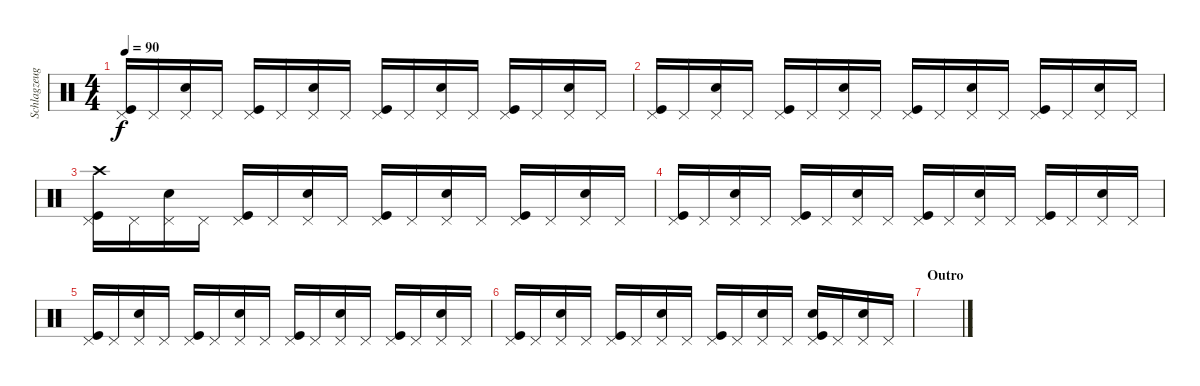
\track ("Schlagzeug" "Schlagzeug") {instrument percussion}
\staff {score}
\articulation defaults
\ts (4 4)
\tempo 90
\clef neutral
\ks c
("Pedal Hi-Hat (hit)" "Kick (hit)").16{dy f volume 11} "Pedal Hi-Hat (hit)".16 ("Pedal Hi-Hat (hit)" "Electric Snare (hit)").16 "Pedal Hi-Hat (hit)".16 ("Pedal Hi-Hat (hit)" "Kick (hit)").16 "Pedal Hi-Hat (hit)".16 ("Pedal Hi-Hat (hit)" "Electric Snare (hit)").16 "Pedal Hi-Hat (hit)".16 ("Pedal Hi-Hat (hit)" "Kick (hit)").16 "Pedal Hi-Hat (hit)".16 ("Pedal Hi-Hat (hit)" "Electric Snare (hit)").16 "Pedal Hi-Hat (hit)".16 ("Pedal Hi-Hat (hit)" "Kick (hit)").16 "Pedal Hi-Hat (hit)".16 ("Pedal Hi-Hat (hit)" "Electric Snare (hit)").16 "Pedal Hi-Hat (hit)".16 |
("Pedal Hi-Hat (hit)" "Kick (hit)").16{volume 10} "Pedal Hi-Hat (hit)".16 ("Pedal Hi-Hat (hit)" "Electric Snare (hit)").16 "Pedal Hi-Hat (hit)".16 ("Pedal Hi-Hat (hit)" "Kick (hit)").16 "Pedal Hi-Hat (hit)".16 ("Pedal Hi-Hat (hit)" "Electric Snare (hit)").16 "Pedal Hi-Hat (hit)".16 ("Pedal Hi-Hat (hit)" "Kick (hit)").16 "Pedal Hi-Hat (hit)".16 ("Pedal Hi-Hat (hit)" "Electric Snare (hit)").16 "Pedal Hi-Hat (hit)".16 ("Pedal Hi-Hat (hit)" "Kick (hit)").16 "Pedal Hi-Hat (hit)".16 ("Pedal Hi-Hat (hit)" "Electric Snare (hit)").16 "Pedal Hi-Hat (hit)".16 |
("Crash high (hit)" "Pedal Hi-Hat (hit)" "Kick (hit)").16{volume 6} "Pedal Hi-Hat (hit)".16 ("Pedal Hi-Hat (hit)" "Electric Snare (hit)").16 "Pedal Hi-Hat (hit)".16 ("Pedal Hi-Hat (hit)" "Kick (hit)").16 "Pedal Hi-Hat (hit)".16 ("Pedal Hi-Hat (hit)" "Electric Snare (hit)").16 "Pedal Hi-Hat (hit)".16 ("Pedal Hi-Hat (hit)" "Kick (hit)").16 "Pedal Hi-Hat (hit)".16 ("Pedal Hi-Hat (hit)" "Electric Snare (hit)").16 "Pedal Hi-Hat (hit)".16 ("Pedal Hi-Hat (hit)" "Kick (hit)").16 "Pedal Hi-Hat (hit)".16 ("Pedal Hi-Hat (hit)" "Electric Snare (hit)").16 "Pedal Hi-Hat (hit)".16 |
("Pedal Hi-Hat (hit)" "Kick (hit)").16 "Pedal Hi-Hat (hit)".16 ("Pedal Hi-Hat (hit)" "Electric Snare (hit)").16 "Pedal Hi-Hat (hit)".16 ("Pedal Hi-Hat (hit)" "Kick (hit)").16 "Pedal Hi-Hat (hit)".16 ("Pedal Hi-Hat (hit)" "Electric Snare (hit)").16 "Pedal Hi-Hat (hit)".16 ("Pedal Hi-Hat (hit)" "Kick (hit)").16 "Pedal Hi-Hat (hit)".16 ("Pedal Hi-Hat (hit)" "Electric Snare (hit)").16 "Pedal Hi-Hat (hit)".16 ("Pedal Hi-Hat (hit)" "Kick (hit)").16 "Pedal Hi-Hat (hit)".16 ("Pedal Hi-Hat (hit)" "Electric Snare (hit)").16 "Pedal Hi-Hat (hit)".16 |
("Pedal Hi-Hat (hit)" "Kick (hit)").16{volume 5} "Pedal Hi-Hat (hit)".16 ("Pedal Hi-Hat (hit)" "Electric Snare (hit)").16 "Pedal Hi-Hat (hit)".16 ("Pedal Hi-Hat (hit)" "Kick (hit)").16 "Pedal Hi-Hat (hit)".16 ("Pedal Hi-Hat (hit)" "Electric Snare (hit)").16 "Pedal Hi-Hat (hit)".16 ("Pedal Hi-Hat (hit)" "Kick (hit)").16 "Pedal Hi-Hat (hit)".16 ("Pedal Hi-Hat (hit)" "Electric Snare (hit)").16 "Pedal Hi-Hat (hit)".16 ("Pedal Hi-Hat (hit)" "Kick (hit)").16 "Pedal Hi-Hat (hit)".16 ("Pedal Hi-Hat (hit)" "Electric Snare (hit)").16 "Pedal Hi-Hat (hit)".16 |
("Pedal Hi-Hat (hit)" "Kick (hit)").16 "Pedal Hi-Hat (hit)".16 ("Pedal Hi-Hat (hit)" "Electric Snare (hit)").16 "Pedal Hi-Hat (hit)".16 ("Pedal Hi-Hat (hit)" "Kick (hit)").16 "Pedal Hi-Hat (hit)".16 ("Pedal Hi-Hat (hit)" "Electric Snare (hit)").16 "Pedal Hi-Hat (hit)".16 ("Pedal Hi-Hat (hit)" "Kick (hit)").16 "Pedal Hi-Hat (hit)".16 ("Pedal Hi-Hat (hit)" "Electric Snare (hit)").16 "Pedal Hi-Hat (hit)".16 ("Pedal Hi-Hat (hit)" "Kick (hit)" "Electric Snare (hit)").16 "Pedal Hi-Hat (hit)".16 ("Pedal Hi-Hat (hit)" "Electric Snare (hit)").16 "Pedal Hi-Hat (hit)".16 |
\section ("" "Outro")
